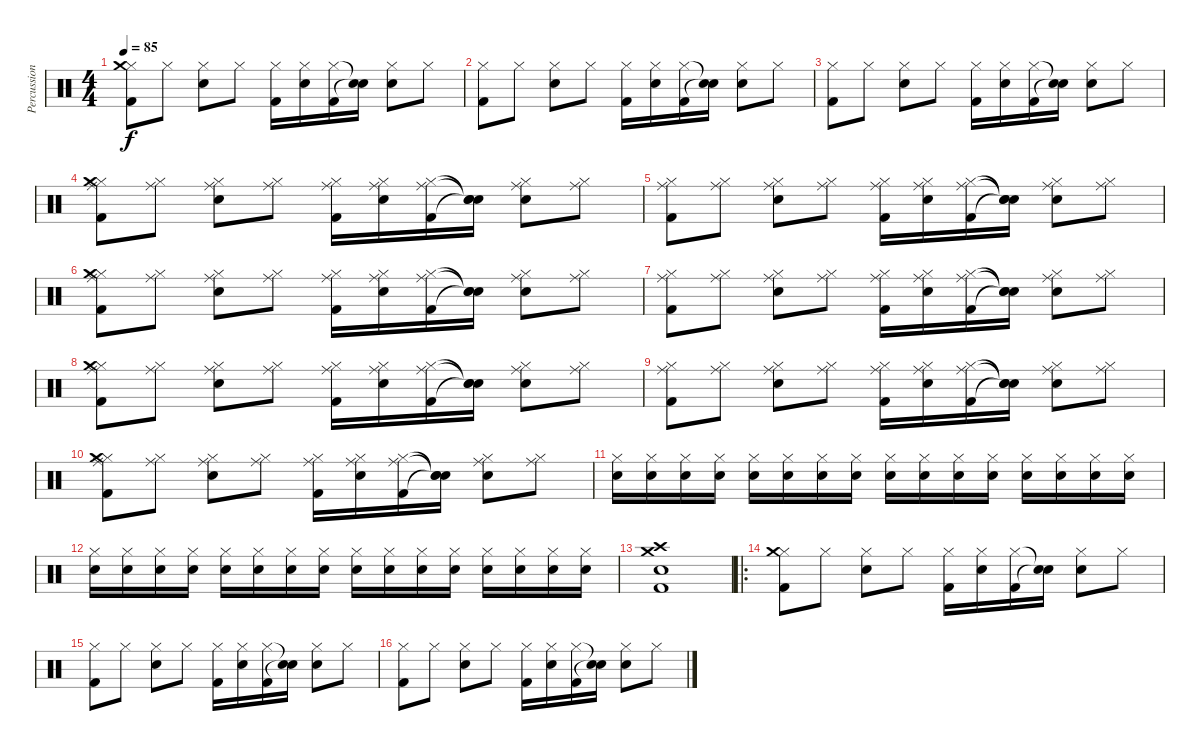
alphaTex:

\track ("Percussion" "Percussion") {instrument percussion}
\staff {score}
\articulation defaults
\ts (4 4)
\tempo 85
\clef neutral
\ks c
("Hi-Hat (closed)" "Crash medium (hit)" "Kick (hit) 2").8{dy f} "Hi-Hat (closed)".8 ("Hi-Hat (closed)" "Snare (hit) 2").8 "Hi-Hat (closed)".8 ("Hi-Hat (closed)" "Kick (hit) 2").16 ("Hi-Hat (closed)" "Snare (hit) 2").16 ("Hi-Hat (closed)" "Kick (hit) 2").16 ("Snare (hit)"{t} "Snare (hit)"{t}).16 ("Hi-Hat (closed)" "Snare (hit) 2").8 "Hi-Hat (closed)".8 |
("Hi-Hat (closed)" "Kick (hit) 2").8 "Hi-Hat (closed)".8 ("Hi-Hat (closed)" "Snare (hit) 2").8 "Hi-Hat (closed)".8 ("Hi-Hat (closed)" "Kick (hit) 2").16 ("Hi-Hat (closed)" "Snare (hit) 2").16 ("Hi-Hat (closed)" "Kick (hit) 2").16 ("Snare (hit)"{t} "Snare (hit)"{t}).16 ("Hi-Hat (closed)" "Snare (hit) 2").8 "Hi-Hat (closed)".8 |
("Hi-Hat (closed)" "Kick (hit) 2").8 "Hi-Hat (closed)".8 ("Hi-Hat (closed)" "Snare (hit) 2").8 "Hi-Hat (closed)".8 ("Hi-Hat (closed)" "Kick (hit) 2").16 ("Hi-Hat (closed)" "Snare (hit) 2").16 ("Hi-Hat (closed)" "Kick (hit) 2").16 ("Snare (hit)"{t} "Snare (hit)"{t}).16 ("Hi-Hat (closed)" "Snare (hit) 2").8 "Hi-Hat (closed)".8 |
("Hi-Hat (closed)" "Crash medium (hit)" "Kick (hit) 2" "Ride (middle)").8 ("Hi-Hat (closed)" "Ride (middle)").8 ("Hi-Hat (closed)" "Snare (hit) 2" "Ride (middle)").8 ("Hi-Hat (closed)" "Ride (middle)").8 ("Hi-Hat (closed)" "Kick (hit) 2" "Ride (middle)").16 ("Hi-Hat (closed)" "Snare (hit) 2" "Ride (middle)").16 ("Hi-Hat (closed)" "Kick (hit) 2" "Ride (middle)").16 ("Snare (hit)"{t} "Snare (hit)"{t} "Snare (hit)"{t}).16 ("Hi-Hat (closed)" "Snare (hit) 2" "Ride (middle)").8 ("Hi-Hat (closed)" "Ride (middle)").8 |
("Hi-Hat (closed)" "Kick (hit) 2" "Ride (middle)").8 ("Hi-Hat (closed)" "Ride (middle)").8 ("Hi-Hat (closed)" "Snare (hit) 2" "Ride (middle)").8 ("Hi-Hat (closed)" "Ride (middle)").8 ("Hi-Hat (closed)" "Kick (hit) 2" "Ride (middle)").16 ("Hi-Hat (closed)" "Snare (hit) 2" "Ride (middle)").16 ("Hi-Hat (closed)" "Kick (hit) 2" "Ride (middle)").16 ("Snare (hit)"{t} "Snare (hit)"{t} "Snare (hit)"{t}).16 ("Hi-Hat (closed)" "Snare (hit) 2" "Ride (middle)").8 ("Hi-Hat (closed)" "Ride (middle)").8 |
("Hi-Hat (closed)" "Crash medium (hit)" "Kick (hit) 2" "Ride (middle)").8 ("Hi-Hat (closed)" "Ride (middle)").8 ("Hi-Hat (closed)" "Snare (hit) 2" "Ride (middle)").8 ("Hi-Hat (closed)" "Ride (middle)").8 ("Hi-Hat (closed)" "Kick (hit) 2" "Ride (middle)").16 ("Hi-Hat (closed)" "Snare (hit) 2" "Ride (middle)").16 ("Hi-Hat (closed)" "Kick (hit) 2" "Ride (middle)").16 ("Snare (hit)"{t} "Snare (hit)"{t} "Snare (hit)"{t}).16 ("Hi-Hat (closed)" "Snare (hit) 2" "Ride (middle)").8 ("Hi-Hat (closed)" "Ride (middle)").8 |
("Hi-Hat (closed)" "Kick (hit) 2" "Ride (middle)").8 ("Hi-Hat (closed)" "Ride (middle)").8 ("Hi-Hat (closed)" "Snare (hit) 2" "Ride (middle)").8 ("Hi-Hat (closed)" "Ride (middle)").8 ("Hi-Hat (closed)" "Kick (hit) 2" "Ride (middle)").16 ("Hi-Hat (closed)" "Snare (hit) 2" "Ride (middle)").16 ("Hi-Hat (closed)" "Kick (hit) 2" "Ride (middle)").16 ("Snare (hit)"{t} "Snare (hit)"{t} "Snare (hit)"{t}).16 ("Hi-Hat (closed)" "Snare (hit) 2" "Ride (middle)").8 ("Hi-Hat (closed)" "Ride (middle)").8 |
("Hi-Hat (closed)" "Crash medium (hit)" "Kick (hit) 2" "Ride (middle)").8 ("Hi-Hat (closed)" "Ride (middle)").8 ("Hi-Hat (closed)" "Snare (hit) 2" "Ride (middle)").8 ("Hi-Hat (closed)" "Ride (middle)").8 ("Hi-Hat (closed)" "Kick (hit) 2" "Ride (middle)").16 ("Hi-Hat (closed)" "Snare (hit) 2" "Ride (middle)").16 ("Hi-Hat (closed)" "Kick (hit) 2" "Ride (middle)").16 ("Snare (hit)"{t} "Snare (hit)"{t} "Snare (hit)"{t}).16 ("Hi-Hat (closed)" "Snare (hit) 2" "Ride (middle)").8 ("Hi-Hat (closed)" "Ride (middle)").8 |
("Hi-Hat (closed)" "Kick (hit) 2" "Ride (middle)").8 ("Hi-Hat (closed)" "Ride (middle)").8 ("Hi-Hat (closed)" "Snare (hit) 2" "Ride (middle)").8 ("Hi-Hat (closed)" "Ride (middle)").8 ("Hi-Hat (closed)" "Kick (hit) 2" "Ride (middle)").16 ("Hi-Hat (closed)" "Snare (hit) 2" "Ride (middle)").16 ("Hi-Hat (closed)" "Kick (hit) 2" "Ride (middle)").16 ("Snare (hit)"{t} "Snare (hit)"{t} "Snare (hit)"{t}).16 ("Hi-Hat (closed)" "Snare (hit) 2" "Ride (middle)").8 ("Hi-Hat (closed)" "Ride (middle)").8 |
("Hi-Hat (closed)" "Crash medium (hit)" "Kick (hit) 2" "Ride (middle)").8 ("Hi-Hat (closed)" "Ride (middle)").8 ("Hi-Hat (closed)" "Snare (hit) 2" "Ride (middle)").8 ("Hi-Hat (closed)" "Ride (middle)").8 ("Hi-Hat (closed)" "Kick (hit) 2" "Ride (middle)").16 ("Hi-Hat (closed)" "Snare (hit) 2" "Ride (middle)").16 ("Hi-Hat (closed)" "Kick (hit) 2" "Ride (middle)").16 ("Snare (hit)"{t} "Snare (hit)"{t} "Snare (hit)"{t}).16 ("Hi-Hat (closed)" "Snare (hit) 2" "Ride (middle)").8 ("Hi-Hat (closed)" "Ride (middle)").8 |
("Hi-Hat (closed)" "Snare (hit) 2").16 ("Hi-Hat (closed)" "Snare (hit) 2").16 ("Hi-Hat (closed)" "Snare (hit) 2").16 ("Hi-Hat (closed)" "Snare (hit) 2").16 ("Hi-Hat (closed)" "Snare (hit) 2").16 ("Hi-Hat (closed)" "Snare (hit) 2").16 ("Hi-Hat (closed)" "Snare (hit) 2").16 ("Hi-Hat (closed)" "Snare (hit) 2").16 ("Hi-Hat (closed)" "Snare (hit) 2").16 ("Hi-Hat (closed)" "Snare (hit) 2").16 ("Hi-Hat (closed)" "Snare (hit) 2").16 ("Hi-Hat (closed)" "Snare (hit) 2").16 ("Hi-Hat (closed)" "Snare (hit) 2").16 ("Hi-Hat (closed)" "Snare (hit) 2").16 ("Hi-Hat (closed)" "Snare (hit) 2").16 ("Hi-Hat (closed)" "Snare (hit) 2").16 |
("Hi-Hat (closed)" "Snare (hit) 2").16 ("Hi-Hat (closed)" "Snare (hit) 2").16 ("Hi-Hat (closed)" "Snare (hit) 2").16 ("Hi-Hat (closed)" "Snare (hit) 2").16 ("Hi-Hat (closed)" "Snare (hit) 2").16 ("Hi-Hat (closed)" "Snare (hit) 2").16 ("Hi-Hat (closed)" "Snare (hit) 2").16 ("Hi-Hat (closed)" "Snare (hit) 2").16 ("Hi-Hat (closed)" "Snare (hit) 2").16 ("Hi-Hat (closed)" "Snare (hit) 2").16 ("Hi-Hat (closed)" "Snare (hit) 2").16 ("Hi-Hat (closed)" "Snare (hit) 2").16 ("Hi-Hat (closed)" "Snare (hit) 2").16 ("Hi-Hat (closed)" "Snare (hit) 2").16 ("Hi-Hat (closed)" "Snare (hit) 2").16 ("Hi-Hat (closed)" "Snare (hit) 2").16 |
("Crash medium (hit)" "Snare (hit) 2" "Kick (hit) 2" "Crash high (hit)").1 |
\ro
("Hi-Hat (closed)" "Crash medium (hit)" "Kick (hit) 2").8 "Hi-Hat (closed)".8 ("Hi-Hat (closed)" "Snare (hit) 2").8 "Hi-Hat (closed)".8 ("Hi-Hat (closed)" "Kick (hit) 2").16 ("Hi-Hat (closed)" "Snare (hit) 2").16 ("Hi-Hat (closed)" "Kick (hit) 2").16 ("Snare (hit)"{t} "Snare (hit)"{t}).16 ("Hi-Hat (closed)" "Snare (hit) 2").8 "Hi-Hat (closed)".8 |
("Hi-Hat (closed)" "Kick (hit) 2").8 "Hi-Hat (closed)".8 ("Hi-Hat (closed)" "Snare (hit) 2").8 "Hi-Hat (closed)".8 ("Hi-Hat (closed)" "Kick (hit) 2").16 ("Hi-Hat (closed)" "Snare (hit) 2").16 ("Hi-Hat (closed)" "Kick (hit) 2").16 ("Snare (hit)"{t} "Snare (hit)"{t}).16 ("Hi-Hat (closed)" "Snare (hit) 2").8 "Hi-Hat (closed)".8 |
("Hi-Hat (closed)" "Kick (hit) 2").8 "Hi-Hat (closed)".8 ("Hi-Hat (closed)" "Snare (hit) 2").8 "Hi-Hat (closed)".8 ("Hi-Hat (closed)" "Kick (hit) 2").16 ("Hi-Hat (closed)" "Snare (hit) 2").16 ("Hi-Hat (closed)" "Kick (hit) 2").16 ("Snare (hit)"{t} "Snare (hit)"{t}).16 ("Hi-Hat (closed)" "Snare (hit) 2").8 "Hi-Hat (closed)".8
